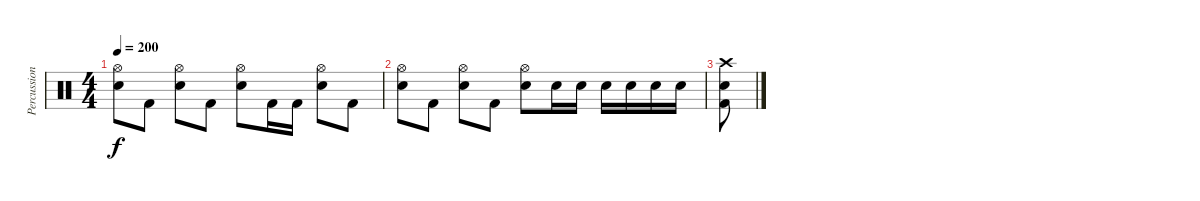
\track ("Percussions" "Percussion") {instrument percussion}
\staff {score}
\articulation defaults
\ts (4 4)
\tempo 200
\clef neutral
\ks c
("Hi-Hat (open)" "Electric Snare (hit)").8{dy f} "Kick (hit) 2".8 ("Hi-Hat (open)" "Electric Snare (hit)").8 "Kick (hit) 2".8 ("Hi-Hat (open)" "Electric Snare (hit)").8 "Kick (hit) 2".16 "Kick (hit) 2".16 ("Hi-Hat (open)" "Electric Snare (hit)").8 "Kick (hit) 2".8 |
("Hi-Hat (open)" "Electric Snare (hit)").8 "Kick (hit) 2".8 ("Hi-Hat (open)" "Electric Snare (hit)").8 "Kick (hit) 2".8 ("Hi-Hat (open)" "Electric Snare (hit)").8 "Electric Snare (hit)".16 "Electric Snare (hit)".16 "Electric Snare (hit)".16 "Electric Snare (hit)".16 "Electric Snare (hit)".16 "Electric Snare (hit)".16 |
("Crash high (hit)" "Electric Snare (hit)" "Kick (hit) 2").8
